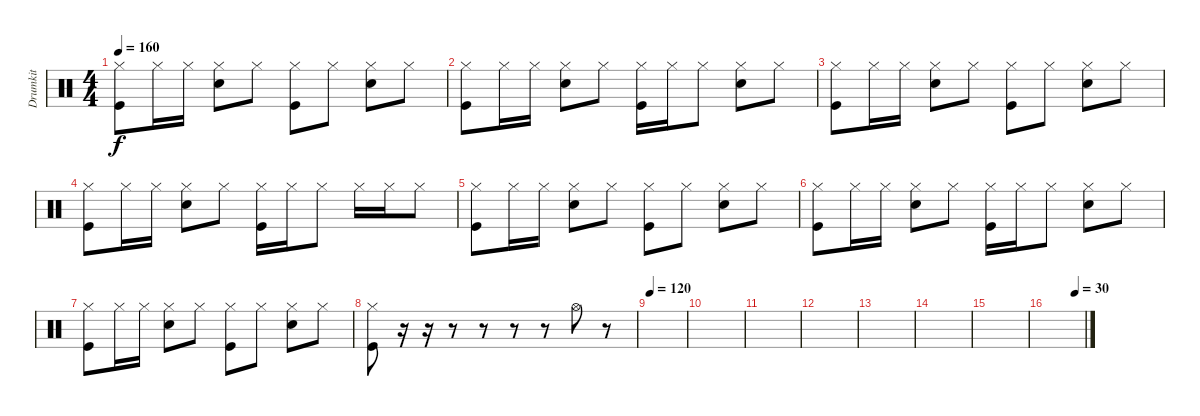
\track ("Drumkit" "Drumkit") {instrument percussion}
\staff {score}
\articulation defaults
\ts (4 4)
\tempo 160
\clef neutral
\ks c
("Hi-Hat (closed)" "Kick (hit)").8{dy f} "Hi-Hat (closed)".16 "Hi-Hat (closed)".16 ("Hi-Hat (closed)" "Snare (hit) 2").8 "Hi-Hat (closed)".8 ("Hi-Hat (closed)" "Kick (hit)").8 "Hi-Hat (closed)".8 ("Hi-Hat (closed)" "Snare (hit) 2").8 "Hi-Hat (closed)".8 |
("Hi-Hat (closed)" "Kick (hit)").8 "Hi-Hat (closed)".16 "Hi-Hat (closed)".16 ("Hi-Hat (closed)" "Snare (hit) 2").8 "Hi-Hat (closed)".8 ("Hi-Hat (closed)" "Kick (hit)").16 "Hi-Hat (closed)".16 "Hi-Hat (closed)".8 ("Hi-Hat (closed)" "Snare (hit) 2").8 "Hi-Hat (closed)".8 |
("Hi-Hat (closed)" "Kick (hit)").8 "Hi-Hat (closed)".16 "Hi-Hat (closed)".16 ("Hi-Hat (closed)" "Snare (hit) 2").8 "Hi-Hat (closed)".8 ("Hi-Hat (closed)" "Kick (hit)").8 "Hi-Hat (closed)".8 ("Hi-Hat (closed)" "Snare (hit) 2").8 "Hi-Hat (closed)".8 |
("Hi-Hat (closed)" "Kick (hit)").8 "Hi-Hat (closed)".16 "Hi-Hat (closed)".16 ("Hi-Hat (closed)" "Snare (hit) 2").8 "Hi-Hat (closed)".8 ("Hi-Hat (closed)" "Kick (hit)").16 "Hi-Hat (closed)".16 "Hi-Hat (closed)".8 "Hi-Hat (closed)".16 "Hi-Hat (closed)".16 "Hi-Hat (closed)".8 |
("Hi-Hat (closed)" "Kick (hit)").8 "Hi-Hat (closed)".16 "Hi-Hat (closed)".16 ("Hi-Hat (closed)" "Snare (hit) 2").8 "Hi-Hat (closed)".8 ("Hi-Hat (closed)" "Kick (hit)").8 "Hi-Hat (closed)".8 ("Hi-Hat (closed)" "Snare (hit) 2").8 "Hi-Hat (closed)".8 |
("Hi-Hat (closed)" "Kick (hit)").8 "Hi-Hat (closed)".16 "Hi-Hat (closed)".16 ("Hi-Hat (closed)" "Snare (hit) 2").8 "Hi-Hat (closed)".8 ("Hi-Hat (closed)" "Kick (hit)").16 "Hi-Hat (closed)".16 "Hi-Hat (closed)".8 ("Hi-Hat (closed)" "Snare (hit) 2").8 "Hi-Hat (closed)".8 |
("Hi-Hat (closed)" "Kick (hit)").8 "Hi-Hat (closed)".16 "Hi-Hat (closed)".16 ("Hi-Hat (closed)" "Snare (hit) 2").8 "Hi-Hat (closed)".8 ("Hi-Hat (closed)" "Kick (hit)").8 "Hi-Hat (closed)".8 ("Hi-Hat (closed)" "Snare (hit) 2").8 "Hi-Hat (closed)".8 |
("Hi-Hat (closed)" "Kick (hit)").8 r.16 r.16 r.8 r.8 r.8 r.8 "Hi-Hat (open)".8 r.8 |
\tempo 120
|
|
|
|
|
|
|
\tempo (30 0.75)
